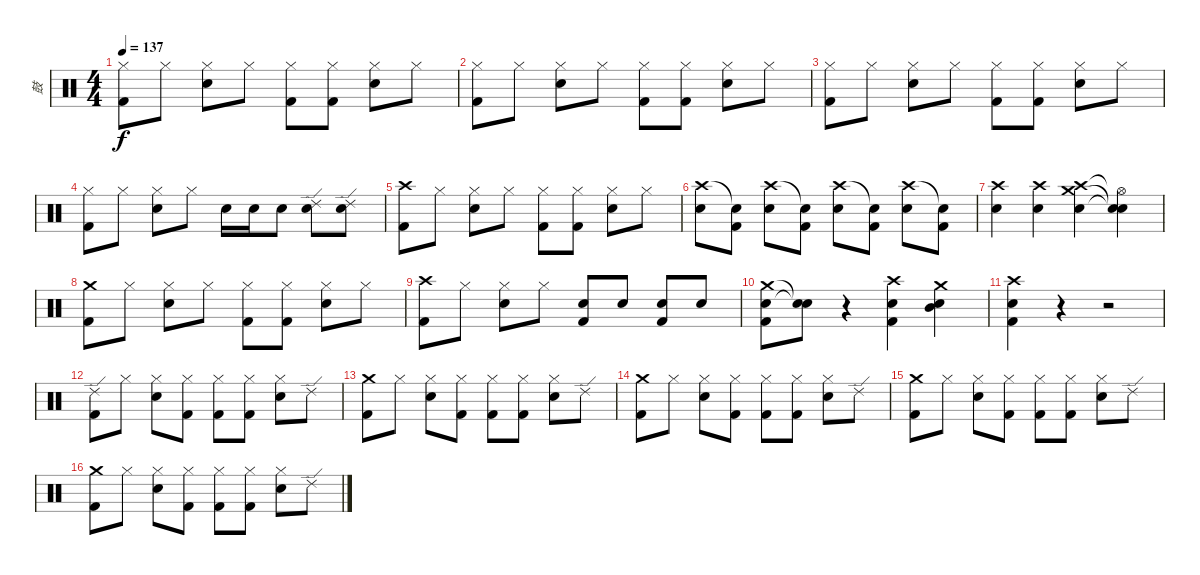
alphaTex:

\track ("鼓" "鼓") {instrument percussion}
\staff {score}
\articulation defaults
\ts (4 4)
\tempo 137
\clef neutral
\ks c
("Hi-Hat (closed)" "Kick (hit) 2").8{dy f} "Hi-Hat (closed)".8 ("Hi-Hat (closed)" "Snare (hit) 2").8 "Hi-Hat (closed)".8 ("Hi-Hat (closed)" "Kick (hit) 2").8 ("Hi-Hat (closed)" "Kick (hit) 2").8 ("Hi-Hat (closed)" "Snare (hit) 2").8 "Hi-Hat (closed)".8 |
("Hi-Hat (closed)" "Kick (hit) 2").8 "Hi-Hat (closed)".8 ("Hi-Hat (closed)" "Snare (hit) 2").8 "Hi-Hat (closed)".8 ("Hi-Hat (closed)" "Kick (hit) 2").8 ("Hi-Hat (closed)" "Kick (hit) 2").8 ("Hi-Hat (closed)" "Snare (hit) 2").8 "Hi-Hat (closed)".8 |
("Hi-Hat (closed)" "Kick (hit) 2").8 "Hi-Hat (closed)".8 ("Hi-Hat (closed)" "Snare (hit) 2").8 "Hi-Hat (closed)".8 ("Hi-Hat (closed)" "Kick (hit) 2").8 ("Hi-Hat (closed)" "Kick (hit) 2").8 ("Hi-Hat (closed)" "Snare (hit) 2").8 "Hi-Hat (closed)".8 |
("Hi-Hat (closed)" "Kick (hit) 2").8 "Hi-Hat (closed)".8 ("Hi-Hat (closed)" "Snare (hit) 2").8 "Hi-Hat (closed)".8 "Snare (hit) 2".16 "Snare (hit) 2".16 "Snare (hit) 2".8 ("Ride (edge) 2" "Snare (hit) 2").8 ("Ride (edge) 2" "Snare (hit) 2").8 |
("Crash high (hit)" "Kick (hit) 2").8 "Hi-Hat (closed)".8 ("Hi-Hat (closed)" "Snare (hit) 2").8 "Hi-Hat (closed)".8 ("Hi-Hat (closed)" "Kick (hit) 2").8 ("Hi-Hat (closed)" "Kick (hit) 2").8 ("Hi-Hat (closed)" "Snare (hit) 2").8 "Hi-Hat (closed)".8 |
("Crash high (hit)" "Snare (hit) 2").8 ("Snare (hit)"{t} "Kick (hit) 2").8 ("Crash high (hit)" "Snare (hit) 2").8 ("Snare (hit)"{t} "Kick (hit) 2").8 ("Crash high (hit)" "Snare (hit) 2").8 ("Snare (hit)"{t} "Kick (hit) 2").8 ("Crash high (hit)" "Snare (hit) 2").8 ("Snare (hit)"{t} "Kick (hit) 2").8 |
("Crash high (hit)" "Snare (hit) 2").4 ("Crash high (hit)" "Snare (hit) 2").4 ("Crash high (hit)" "Crash medium (hit)" "Snare (hit) 2").4 ("Hi-Hat (open)"{t} "Snare (hit)"{t} "Snare (hit) 2"{t}).4 |
("Crash medium (hit)" "Kick (hit) 2").8 "Hi-Hat (closed)".8 ("Hi-Hat (closed)" "Snare (hit) 2").8 "Hi-Hat (closed)".8 ("Hi-Hat (closed)" "Kick (hit) 2").8 ("Hi-Hat (closed)" "Kick (hit) 2").8 ("Hi-Hat (closed)" "Snare (hit) 2").8 "Hi-Hat (closed)".8 |
("Crash high (hit)" "Kick (hit) 2").8 "Hi-Hat (closed)".8 ("Hi-Hat (closed)" "Snare (hit) 2").8 "Hi-Hat (closed)".8 ("Snare (hit) 2" "Kick (hit) 2").8 "Snare (hit) 2".8 ("Snare (hit) 2" "Kick (hit) 2").8 "Snare (hit) 2".8 |
("Crash medium (hit)" "Snare (hit) 2" "Kick (hit) 2").8 ("Snare (hit)"{t} "Snare (hit)"{t}).8 r.4 ("Crash high (hit)" "Snare (hit) 2" "Kick (hit) 2").4 ("Crash medium (hit)" "Mid Tom (hit)" "Snare (hit) 2").4 |
("Crash high (hit)" "Snare (hit) 2" "Kick (hit) 2").4 r.4 r.2 |
("Ride (edge) 2" "Kick (hit) 2").8 "Hi-Hat (closed)".8 ("Hi-Hat (closed)" "Snare (hit) 2").8 ("Hi-Hat (closed)" "Kick (hit) 2").8 ("Hi-Hat (closed)" "Kick (hit) 2").8 ("Hi-Hat (closed)" "Kick (hit) 2").8 ("Hi-Hat (closed)" "Snare (hit) 2").8 "Ride (edge) 2".8 |
("Crash medium (hit)" "Kick (hit) 2").8 "Hi-Hat (closed)".8 ("Hi-Hat (closed)" "Snare (hit) 2").8 ("Hi-Hat (closed)" "Kick (hit) 2").8 ("Hi-Hat (closed)" "Kick (hit) 2").8 ("Hi-Hat (closed)" "Kick (hit) 2").8 ("Hi-Hat (closed)" "Snare (hit) 2").8 "Ride (edge) 2".8 |
("Crash medium (hit)" "Kick (hit) 2").8 "Hi-Hat (closed)".8 ("Hi-Hat (closed)" "Snare (hit) 2").8 ("Hi-Hat (closed)" "Kick (hit) 2").8 ("Hi-Hat (closed)" "Kick (hit) 2").8 ("Hi-Hat (closed)" "Kick (hit) 2").8 ("Hi-Hat (closed)" "Snare (hit) 2").8 "Ride (edge) 2".8 |
("Crash medium (hit)" "Kick (hit) 2").8 "Hi-Hat (closed)".8 ("Hi-Hat (closed)" "Snare (hit) 2").8 ("Hi-Hat (closed)" "Kick (hit) 2").8 ("Hi-Hat (closed)" "Kick (hit) 2").8 ("Hi-Hat (closed)" "Kick (hit) 2").8 ("Hi-Hat (closed)" "Snare (hit) 2").8 "Ride (edge) 2".8 |
("Crash medium (hit)" "Kick (hit) 2").8 "Hi-Hat (closed)".8 ("Hi-Hat (closed)" "Snare (hit) 2").8 ("Hi-Hat (closed)" "Kick (hit) 2").8 ("Hi-Hat (closed)" "Kick (hit) 2").8 ("Hi-Hat (closed)" "Kick (hit) 2").8 ("Hi-Hat (closed)" "Snare (hit) 2").8 "Ride (edge) 2".8
